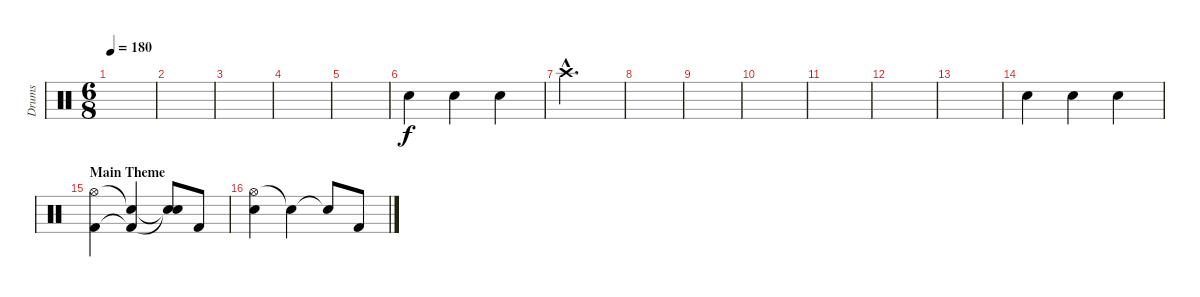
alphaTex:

\track ("Drums" "Drums") {instrument percussion}
\staff {score}
\articulation defaults
\ts (6 8)
\tempo 180
\clef neutral
\ks c
|
|
|
|
|
"Snare (hit) 2".4 "Snare (hit) 2".4 "Snare (hit) 2".4 |
"Crash high (hit)"{hac}.2{d} |
|
|
|
|
|
|
"Snare (hit) 2".4 "Snare (hit) 2".4 "Snare (hit) 2".4 |
\section ("" "Main Theme")
("Hi-Hat (open)" "Kick (hit) 2").4 ("Snare (hit)"{t} "Kick (hit) 2"{t}).4 ("Snare (hit)"{t} "Snare (hit)"{t}).8 "Kick (hit) 2".8 |
("Hi-Hat (open)" "Snare (hit) 2").4 "Snare (hit)"{t}.4 "Snare (hit)"{t}.8 "Kick (hit) 2".8
